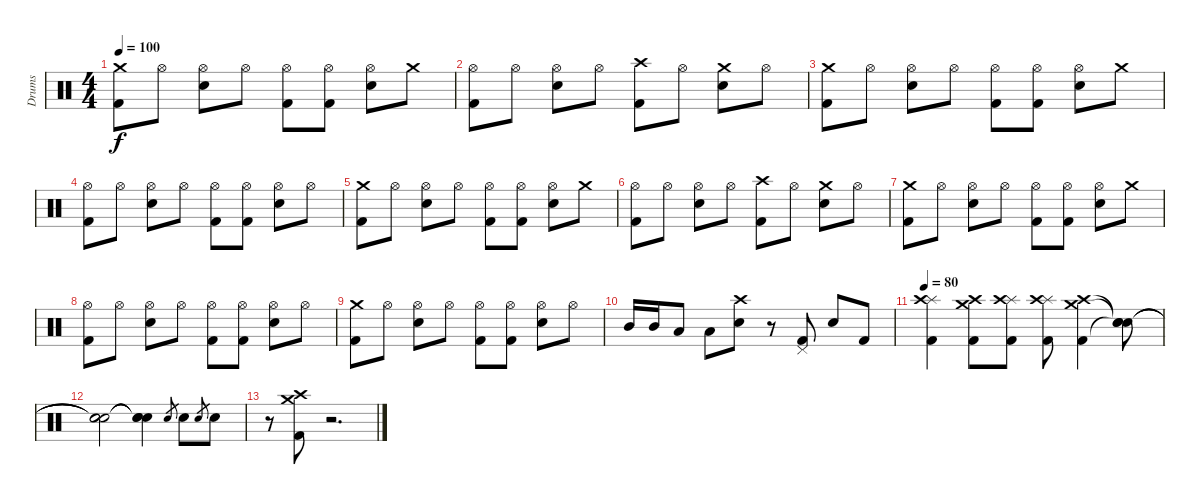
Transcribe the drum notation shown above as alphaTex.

\track ("Drums" "Drums") {instrument percussion}
\staff {score}
\articulation defaults
\ts (4 4)
\tempo 100
\clef neutral
\ks c
("Crash medium (hit)" "Kick (hit) 2").8{dy f} "Hi-Hat (open)".8 ("Hi-Hat (open)" "Electric Snare (hit)").8 "Hi-Hat (open)".8 ("Hi-Hat (open)" "Kick (hit) 2").8 ("Hi-Hat (open)" "Kick (hit) 2").8 ("Hi-Hat (open)" "Electric Snare (hit)").8 "Crash medium (hit)".8 |
("Hi-Hat (open)" "Kick (hit) 2").8 "Hi-Hat (open)".8 ("Hi-Hat (open)" "Electric Snare (hit)").8 "Hi-Hat (open)".8 ("Crash high (hit)" "Kick (hit) 2").8 "Hi-Hat (open)".8 ("Crash medium (hit)" "Electric Snare (hit)").8 "Hi-Hat (open)".8 |
("Crash medium (hit)" "Kick (hit) 2").8 "Hi-Hat (open)".8 ("Hi-Hat (open)" "Electric Snare (hit)").8 "Hi-Hat (open)".8 ("Hi-Hat (open)" "Kick (hit) 2").8 ("Hi-Hat (open)" "Kick (hit) 2").8 ("Hi-Hat (open)" "Electric Snare (hit)").8 "Crash medium (hit)".8 |
("Hi-Hat (open)" "Kick (hit) 2").8 "Hi-Hat (open)".8 ("Hi-Hat (open)" "Electric Snare (hit)").8 "Hi-Hat (open)".8 ("Hi-Hat (open)" "Kick (hit) 2").8 ("Hi-Hat (open)" "Kick (hit) 2").8 ("Hi-Hat (open)" "Electric Snare (hit)").8 "Hi-Hat (open)".8 |
("Crash medium (hit)" "Kick (hit) 2").8 "Hi-Hat (open)".8 ("Hi-Hat (open)" "Electric Snare (hit)").8 "Hi-Hat (open)".8 ("Hi-Hat (open)" "Kick (hit) 2").8 ("Hi-Hat (open)" "Kick (hit) 2").8 ("Hi-Hat (open)" "Electric Snare (hit)").8 "Crash medium (hit)".8 |
("Hi-Hat (open)" "Kick (hit) 2").8 "Hi-Hat (open)".8 ("Hi-Hat (open)" "Electric Snare (hit)").8 "Hi-Hat (open)".8 ("Crash high (hit)" "Kick (hit) 2").8 "Hi-Hat (open)".8 ("Crash medium (hit)" "Electric Snare (hit)").8 "Hi-Hat (open)".8 |
("Crash medium (hit)" "Kick (hit) 2").8 "Hi-Hat (open)".8 ("Hi-Hat (open)" "Electric Snare (hit)").8 "Hi-Hat (open)".8 ("Hi-Hat (open)" "Kick (hit) 2").8 ("Hi-Hat (open)" "Kick (hit) 2").8 ("Hi-Hat (open)" "Electric Snare (hit)").8 "Crash medium (hit)".8 |
("Hi-Hat (open)" "Kick (hit) 2").8 "Hi-Hat (open)".8 ("Hi-Hat (open)" "Electric Snare (hit)").8 "Hi-Hat (open)".8 ("Hi-Hat (open)" "Kick (hit) 2").8 ("Hi-Hat (open)" "Kick (hit) 2").8 ("Hi-Hat (open)" "Electric Snare (hit)").8 "Hi-Hat (open)".8 |
("Crash medium (hit)" "Kick (hit) 2").8 "Hi-Hat (open)".8 ("Hi-Hat (open)" "Electric Snare (hit)").8 "Hi-Hat (open)".8 ("Hi-Hat (open)" "Kick (hit) 2").8 ("Hi-Hat (open)" "Kick (hit) 2").8 ("Hi-Hat (open)" "Electric Snare (hit)").8 "Hi-Hat (open)".8 |
"Mid Tom (hit)".16 "Mid Tom (hit)".16 "Low Tom (hit)".8 "Low Tom (hit)".8 ("Crash high (hit)" "Electric Snare (hit)").8 r.8 ("Pedal Hi-Hat (hit)" "Kick (hit) 2").8 "Electric Snare (hit)".8 "Kick (hit) 2".8 |
\tempo 80
("Splash (hit)" "Crash high (hit)" "Kick (hit) 2").4 ("Crash medium (hit)" "Crash high (hit)" "Kick (hit) 2").8 ("Splash (hit)" "Crash high (hit)" "Kick (hit) 2").8 ("Splash (hit)" "Crash high (hit)" "Kick (hit) 2").8 ("Crash medium (hit)" "Crash high (hit)" "Kick (hit) 2").4 ("Snare (hit)"{t} "Snare (hit)"{t} "Snare (hit)"{t}).8 |
("Snare (hit)"{t} "Snare (hit)"{t} "Snare (hit)"{t}).2 ("Snare (hit)"{t} "Snare (hit)"{t} "Electric Snare (hit)"{t}).4 "Electric Snare (hit)".8{gr} "Electric Snare (hit)".8 "Electric Snare (hit)".8{gr} "Electric Snare (hit)".8 |
r.8 ("Crash medium (hit)" "Crash high (hit)" "Kick (hit) 2").8 r.2{d}
